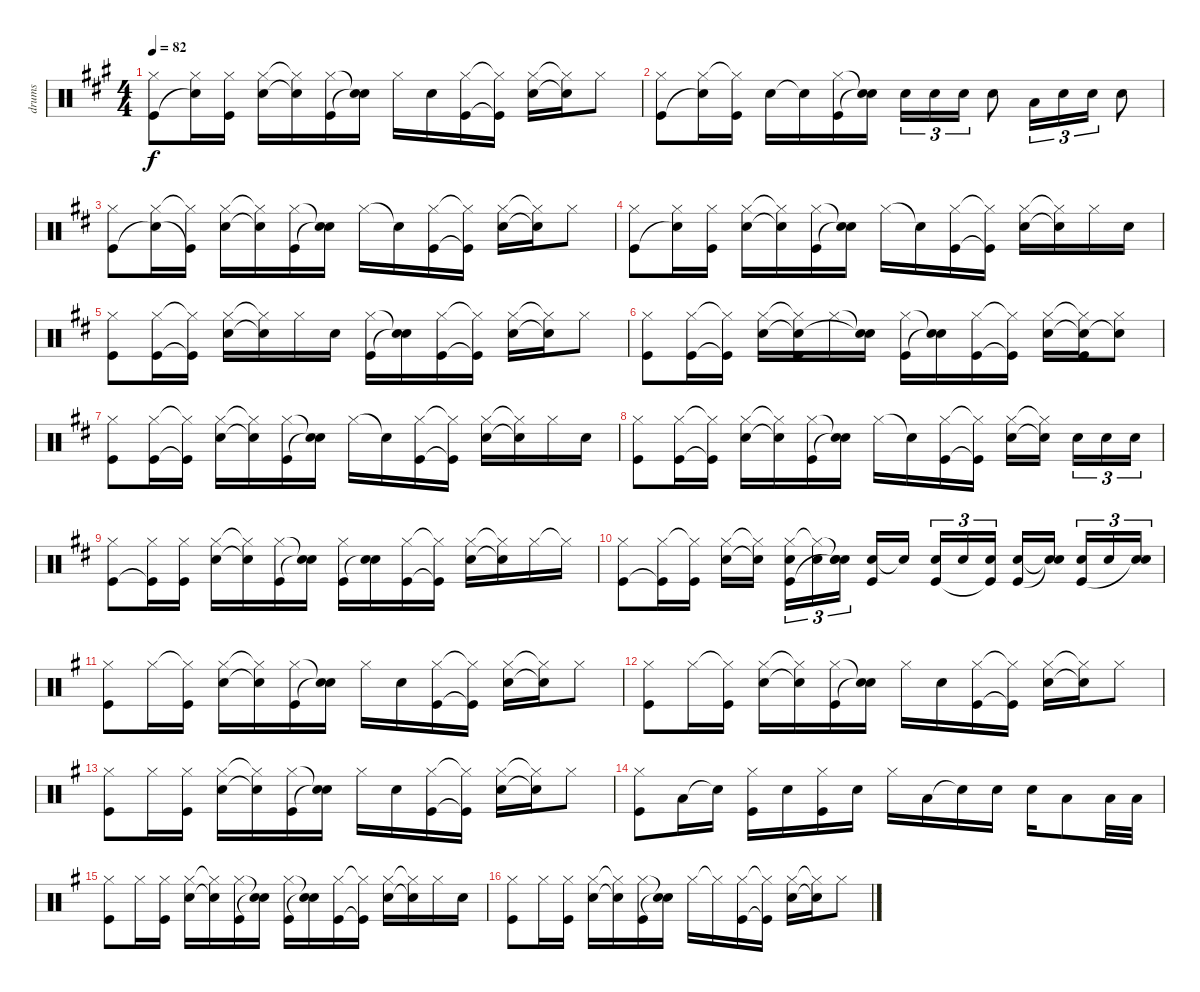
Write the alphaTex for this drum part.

\track ("drums" "drums") {instrument percussion}
\staff {score}
\articulation defaults
\ts (4 4)
\tempo 82
\clef neutral
\ks a
("Hi-Hat (closed)" "Kick (hit)").8{dy f} ("Hi-Hat (closed)" "Snare (hit)"{t}).16 ("Hi-Hat (closed)" "Kick (hit)").16 ("Hi-Hat (closed)" "Snare (hit) 2").16 ("Hi-Hat (closed)"{t} "Snare (hit) 2"{t}).16 ("Hi-Hat (closed)" "Kick (hit)").16 ("Snare (hit)"{t} "Snare (hit)"{t}).16 "Hi-Hat (closed)".16 "Snare (hit) 2".16 ("Hi-Hat (closed)" "Kick (hit)").16 ("Hi-Hat (closed)"{t} "Kick (hit)"{t}).16 ("Hi-Hat (closed)" "Snare (hit) 2").16 ("Hi-Hat (closed)"{t} "Snare (hit)"{t}).16 "Hi-Hat (closed)".8 |
("Hi-Hat (closed)" "Kick (hit)").8 ("Hi-Hat (closed)" "Snare (hit)"{t}).16 ("Hi-Hat (closed)"{t} "Kick (hit)").16 "Snare (hit) 2".16 "Snare (hit) 2"{t}.16 ("Hi-Hat (closed)" "Kick (hit)").16 ("Snare (hit)"{t} "Snare (hit)"{t}).16 "Snare (hit) 2".16{tu (3 2)} "Snare (hit) 2".16{tu (3 2)} "Snare (hit) 2".16{tu (3 2)} "Snare (hit) 2".8 "Low Tom (hit)".16{tu (3 2)} "Snare (hit) 2".16{tu (3 2)} "Snare (hit) 2".16{tu (3 2)} "Snare (hit) 2".8 |
\ks d
("Hi-Hat (closed)" "Kick (hit)").8 ("Hi-Hat (closed)" "Snare (hit)"{t}).16 ("Hi-Hat (closed)"{t} "Kick (hit)"{t}).16 ("Hi-Hat (closed)" "Snare (hit) 2").16 ("Hi-Hat (closed)"{t} "Snare (hit) 2"{t}).16 ("Hi-Hat (closed)" "Kick (hit)").16 ("Snare (hit)"{t} "Snare (hit)"{t}).16 "Hi-Hat (closed)".16 "Snare (hit)"{t}.16 ("Hi-Hat (closed)" "Kick (hit)").16 ("Hi-Hat (closed)"{t} "Kick (hit)"{t}).16 ("Hi-Hat (closed)" "Snare (hit) 2").16 ("Hi-Hat (closed)"{t} "Snare (hit)"{t}).16 "Hi-Hat (closed)".8 |
("Hi-Hat (closed)" "Kick (hit)").8 ("Hi-Hat (closed)" "Snare (hit)"{t}).16 ("Hi-Hat (closed)" "Kick (hit)").16 ("Hi-Hat (closed)" "Snare (hit) 2").16 ("Hi-Hat (closed)"{t} "Snare (hit) 2"{t}).16 ("Hi-Hat (closed)" "Kick (hit)").16 ("Snare (hit)"{t} "Snare (hit)"{t}).16 "Hi-Hat (closed)".16 "Snare (hit)"{t}.16 ("Hi-Hat (closed)" "Kick (hit)").16 ("Hi-Hat (closed)"{t} "Kick (hit)"{t}).16 ("Hi-Hat (closed)" "Snare (hit) 2").16 ("Hi-Hat (closed)"{t} "Snare (hit)"{t}).16 "Hi-Hat (closed)".16 "Snare (hit) 2".16 |
("Hi-Hat (closed)" "Kick (hit)").8 ("Hi-Hat (closed)" "Kick (hit)").16 ("Hi-Hat (closed)"{t} "Kick (hit)"{t}).16 ("Hi-Hat (closed)" "Snare (hit) 2").16 ("Hi-Hat (closed)"{t} "Snare (hit) 2"{t}).16 "Hi-Hat (closed)".16 "Snare (hit) 2".16 ("Hi-Hat (closed)" "Kick (hit)").16 ("Snare (hit)"{t} "Snare (hit)"{t}).16 ("Hi-Hat (closed)" "Kick (hit)").16 ("Hi-Hat (closed)"{t} "Kick (hit)"{t}).16 ("Hi-Hat (closed)" "Snare (hit) 2").16 ("Hi-Hat (closed)"{t} "Snare (hit)"{t}).16 "Hi-Hat (closed)".8 |
("Hi-Hat (closed)" "Kick (hit)").8 ("Hi-Hat (closed)" "Kick (hit)").16 ("Hi-Hat (closed)"{t} "Kick (hit)"{t}).16 ("Hi-Hat (closed)" "Snare (hit) 2").16 ("Hi-Hat (closed)"{t} "Snare (hit) 2"{t} "Kick (hit)").16 "Hi-Hat (closed)".16 ("Snare (hit)"{t} "Snare (hit)"{t}).16 ("Hi-Hat (closed)" "Kick (hit)").16 ("Snare (hit)"{t} "Snare (hit)"{t}).16 ("Hi-Hat (closed)" "Kick (hit)").16 ("Hi-Hat (closed)"{t} "Kick (hit)"{t}).16 ("Hi-Hat (closed)" "Snare (hit) 2").16 ("Hi-Hat (closed)"{t} "Snare (hit)"{t} "Kick (hit)").16 ("Hi-Hat (closed)" "Snare (hit)"{t}).8 |
("Hi-Hat (closed)" "Kick (hit)").8 ("Hi-Hat (closed)" "Kick (hit)").16 ("Hi-Hat (closed)"{t} "Kick (hit)"{t}).16 ("Hi-Hat (closed)" "Snare (hit) 2").16 ("Hi-Hat (closed)"{t} "Snare (hit) 2"{t}).16 ("Hi-Hat (closed)" "Kick (hit)").16 ("Snare (hit)"{t} "Snare (hit)"{t}).16 "Hi-Hat (closed)".16 "Snare (hit)"{t}.16 ("Hi-Hat (closed)" "Kick (hit)").16 ("Hi-Hat (closed)"{t} "Kick (hit)"{t}).16 ("Hi-Hat (closed)" "Snare (hit) 2").16 ("Hi-Hat (closed)"{t} "Snare (hit)"{t}).16 "Hi-Hat (closed)".16 "Snare (hit) 2".16 |
("Hi-Hat (closed)" "Kick (hit)").8 ("Hi-Hat (closed)" "Kick (hit)").16 ("Hi-Hat (closed)"{t} "Kick (hit)"{t}).16 ("Hi-Hat (closed)" "Snare (hit) 2").16 ("Hi-Hat (closed)"{t} "Snare (hit) 2"{t}).16 ("Hi-Hat (closed)" "Kick (hit)").16 ("Snare (hit)"{t} "Snare (hit)"{t}).16 "Hi-Hat (closed)".16 "Snare (hit)"{t}.16 ("Hi-Hat (closed)" "Kick (hit)").16 ("Hi-Hat (closed)"{t} "Kick (hit)"{t}).16 ("Hi-Hat (closed)" "Snare (hit) 2").16 ("Hi-Hat (closed)"{t} "Snare (hit)"{t}).16 "Snare (hit) 2".16{tu (3 2)} "Snare (hit) 2".16{tu (3 2)} "Snare (hit) 2".16{tu (3 2)} |
("Hi-Hat (closed)" "Kick (hit)").8 ("Hi-Hat (closed)" "Kick (hit)"{t}).16 ("Hi-Hat (closed)" "Kick (hit)").16 ("Hi-Hat (closed)" "Snare (hit) 2").16 ("Hi-Hat (closed)"{t} "Snare (hit) 2"{t}).16 ("Hi-Hat (closed)" "Kick (hit)").16 ("Snare (hit)"{t} "Snare (hit)"{t}).16 ("Hi-Hat (closed)" "Kick (hit)").16 ("Snare (hit) 2" "Snare (hit)"{t}).16 ("Hi-Hat (closed)" "Kick (hit)").16 ("Hi-Hat (closed)"{t} "Kick (hit)"{t}).16 ("Hi-Hat (closed)" "Snare (hit) 2").16 ("Hi-Hat (closed)"{t} "Snare (hit)"{t}).16 "Hi-Hat (closed)".16 "Hi-Hat (closed)"{t}.16 |
("Hi-Hat (closed)" "Kick (hit)").8 ("Hi-Hat (closed)" "Kick (hit)"{t}).16 ("Hi-Hat (closed)"{t} "Kick (hit)").16 ("Hi-Hat (closed)" "Snare (hit) 2").16 ("Hi-Hat (closed)"{t} "Snare (hit) 2"{t}).16 ("Hi-Hat (closed)" "Snare (hit) 2" "Kick (hit)").16{tu (3 2)} ("Hi-Hat (closed)"{t} "Snare (hit) 2").16{tu (3 2)} ("Snare (hit)"{t} "Snare (hit) 2" "Snare (hit)"{t}).16{tu (3 2)} ("Snare (hit) 2" "Kick (hit)").16 "Snare (hit)"{t}.16 ("Snare (hit) 2" "Kick (hit)").16{tu (3 2)} "Snare (hit) 2".16{tu (3 2)} ("Snare (hit) 2" "Kick (hit)"{t}).16{tu (3 2)} ("Snare (hit) 2" "Kick (hit)").16 ("Snare (hit)"{t} "Snare (hit)"{t}).16 ("Snare (hit) 2" "Kick (hit)").16{tu (3 2)} "Snare (hit) 2".16{tu (3 2)} ("Snare (hit) 2" "Snare (hit)"{t}).16{tu (3 2)} |
\ks g
("Hi-Hat (closed)" "Kick (hit)").8 "Hi-Hat (closed)".16 ("Hi-Hat (closed)"{t} "Kick (hit)").16 ("Hi-Hat (closed)" "Snare (hit) 2").16 ("Hi-Hat (closed)"{t} "Snare (hit) 2"{t}).16 ("Hi-Hat (closed)" "Kick (hit)").16 ("Snare (hit)"{t} "Snare (hit)"{t}).16 "Hi-Hat (closed)".16 "Snare (hit) 2".16 ("Hi-Hat (closed)" "Kick (hit)").16 ("Hi-Hat (closed)"{t} "Kick (hit)"{t}).16 ("Hi-Hat (closed)" "Snare (hit) 2").16 ("Hi-Hat (closed)"{t} "Snare (hit)"{t}).16 "Hi-Hat (closed)".8 |
("Hi-Hat (closed)" "Kick (hit)").8 "Hi-Hat (closed)".16 ("Hi-Hat (closed)"{t} "Kick (hit)").16 ("Hi-Hat (closed)" "Snare (hit) 2").16 ("Hi-Hat (closed)"{t} "Snare (hit) 2"{t}).16 ("Hi-Hat (closed)" "Kick (hit)").16 ("Snare (hit)"{t} "Snare (hit)"{t}).16 "Hi-Hat (closed)".16 "Snare (hit) 2".16 ("Hi-Hat (closed)" "Kick (hit)").16 ("Hi-Hat (closed)"{t} "Kick (hit)"{t}).16 ("Hi-Hat (closed)" "Snare (hit) 2").16 ("Hi-Hat (closed)"{t} "Snare (hit)"{t}).16 "Hi-Hat (closed)".8 |
("Hi-Hat (closed)" "Kick (hit)").8 "Hi-Hat (closed)".16 ("Hi-Hat (closed)" "Kick (hit)").16 ("Hi-Hat (closed)" "Snare (hit) 2").16 ("Hi-Hat (closed)"{t} "Snare (hit) 2"{t}).16 ("Hi-Hat (closed)" "Kick (hit)").16 ("Snare (hit)"{t} "Snare (hit)"{t}).16 "Hi-Hat (closed)".16 "Snare (hit) 2".16 ("Hi-Hat (closed)" "Kick (hit)").16 ("Hi-Hat (closed)"{t} "Kick (hit)"{t}).16 ("Hi-Hat (closed)" "Snare (hit) 2").16 ("Hi-Hat (closed)"{t} "Snare (hit)"{t}).16 "Hi-Hat (closed)".8 |
("Hi-Hat (closed)" "Kick (hit)").8 "Low Tom (hit)".16 "Snare (hit)"{t}.16 ("Hi-Hat (closed)" "Kick (hit)").16 "Snare (hit) 2".16 ("Hi-Hat (closed)" "Kick (hit)").16 "Snare (hit) 2".16 "Hi-Hat (closed)".16 "Low Tom (hit)".16 "Snare (hit)"{t}.16 "Snare (hit) 2".16 "Snare (hit) 2".16 "Low Tom (hit)".8 "Low Tom (hit)".32 "Low Tom (hit)".32 |
("Hi-Hat (closed)" "Kick (hit)").8 "Hi-Hat (closed)".16 ("Hi-Hat (closed)" "Kick (hit)").16 ("Hi-Hat (closed)" "Snare (hit) 2").16 ("Hi-Hat (closed)"{t} "Snare (hit) 2"{t}).16 ("Hi-Hat (closed)" "Kick (hit)").16 ("Snare (hit)"{t} "Snare (hit)"{t}).16 ("Hi-Hat (closed)" "Kick (hit)").16 ("Snare (hit)"{t} "Snare (hit)"{t}).16 ("Hi-Hat (closed)" "Kick (hit)").16 ("Hi-Hat (closed)"{t} "Kick (hit)"{t}).16 ("Hi-Hat (closed)" "Snare (hit) 2").16 ("Hi-Hat (closed)"{t} "Snare (hit)"{t}).16 "Hi-Hat (closed)".16 "Snare (hit) 2".16 |
("Hi-Hat (closed)" "Kick (hit)").8 "Hi-Hat (closed)".16 ("Hi-Hat (closed)" "Kick (hit)").16 ("Hi-Hat (closed)" "Snare (hit) 2").16 ("Hi-Hat (closed)"{t} "Snare (hit) 2"{t}).16 ("Hi-Hat (closed)" "Kick (hit)").16 ("Snare (hit)"{t} "Snare (hit)"{t}).16 "Hi-Hat (closed)".16 "Hi-Hat (closed)"{t}.16 ("Hi-Hat (closed)" "Kick (hit)").16 ("Hi-Hat (closed)"{t} "Kick (hit)"{t}).16 ("Hi-Hat (closed)" "Snare (hit) 2").16 ("Hi-Hat (closed)"{t} "Snare (hit)"{t}).16 "Hi-Hat (closed)".8
